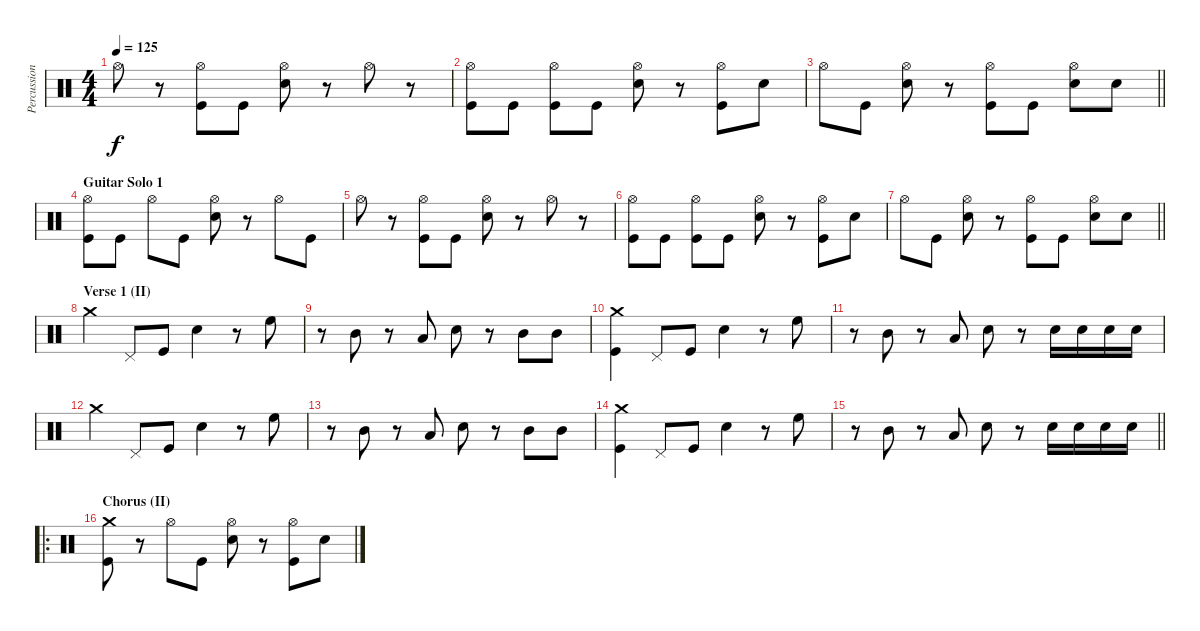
\track ("Percussion" "Percussion") {instrument percussion}
\staff {score}
\articulation defaults
\ts (4 4)
\tempo 125
\clef neutral
\ks c "Hi-Hat (open)".8{dy f}
r.8 ("Hi-Hat (open)" "Kick (hit)").8 "Kick (hit)".8 ("Hi-Hat (open)" "Snare (hit) 2").8 r.8 "Hi-Hat (open)".8 r.8 |
("Hi-Hat (open)" "Kick (hit)").8 "Kick (hit)".8 ("Hi-Hat (open)" "Kick (hit)").8 "Kick (hit)".8 ("Hi-Hat (open)" "Snare (hit) 2").8 r.8 ("Hi-Hat (open)" "Kick (hit)").8 "Snare (hit) 2".8 |
\barLineRight lightlight "Hi-Hat (open)".8 "Kick (hit)".8
("Hi-Hat (open)" "Snare (hit) 2").8 r.8 ("Hi-Hat (open)" "Kick (hit)").8 "Kick (hit)".8 ("Hi-Hat (open)" "Snare (hit) 2").8 "Snare (hit) 2".8 |
\section ("" "Guitar Solo 1")
("Hi-Hat (open)" "Kick (hit)").8 "Kick (hit)".8 "Hi-Hat (open)".8 "Kick (hit)".8 ("Hi-Hat (open)" "Snare (hit) 2").8 r.8 "Hi-Hat (open)".8 "Kick (hit)".8 |
"Hi-Hat (open)".8 r.8 ("Hi-Hat (open)" "Kick (hit)").8 "Kick (hit)".8 ("Hi-Hat (open)" "Snare (hit) 2").8 r.8 "Hi-Hat (open)".8 r.8 |
("Hi-Hat (open)" "Kick (hit)").8 "Kick (hit)".8 ("Hi-Hat (open)" "Kick (hit)").8 "Kick (hit)".8 ("Hi-Hat (open)" "Snare (hit) 2").8 r.8 ("Hi-Hat (open)" "Kick (hit)").8 "Snare (hit) 2".8 |
\barLineRight lightlight "Hi-Hat (open)".8 "Kick (hit)".8
("Hi-Hat (open)" "Snare (hit) 2").8 r.8 ("Hi-Hat (open)" "Kick (hit)").8 "Kick (hit)".8 ("Hi-Hat (open)" "Snare (hit) 2").8 "Snare (hit) 2".8 |
\section ("" "Verse 1 (II)")
"Crash medium (hit)".4 "Pedal Hi-Hat (hit)".8 "Kick (hit)".8 "Snare (hit) 2".4 r.8 "High Floor Tom (hit)".8 |
r.8 "Mid Tom (hit)".8 r.8 "Low Tom (hit)".8 "Snare (hit) 2".8 r.8 "Mid Tom (hit)".8 "Mid Tom (hit)".8 |
("Crash medium (hit)" "Kick (hit)").4 "Pedal Hi-Hat (hit)".8 "Kick (hit)".8 "Snare (hit) 2".4 r.8 "High Floor Tom (hit)".8 |
r.8 "Mid Tom (hit)".8 r.8 "Low Tom (hit)".8 "Snare (hit) 2".8 r.8 "Snare (hit) 2".16 "Snare (hit) 2".16 "Snare (hit) 2".16 "Snare (hit) 2".16 |
"Crash medium (hit)".4 "Pedal Hi-Hat (hit)".8 "Kick (hit)".8 "Snare (hit) 2".4 r.8 "High Floor Tom (hit)".8 |
r.8 "Mid Tom (hit)".8 r.8 "Low Tom (hit)".8 "Snare (hit) 2".8 r.8 "Mid Tom (hit)".8 "Mid Tom (hit)".8 |
("Crash medium (hit)" "Kick (hit)").4 "Pedal Hi-Hat (hit)".8 "Kick (hit)".8 "Snare (hit) 2".4 r.8 "High Floor Tom (hit)".8 |
\barLineRight lightlight
r.8 "Mid Tom (hit)".8 r.8 "Low Tom (hit)".8 "Snare (hit) 2".8 r.8 "Snare (hit) 2".16 "Snare (hit) 2".16 "Snare (hit) 2".16 "Snare (hit) 2".16 |
\ro
\section ("" "Chorus (II)")
("Crash medium (hit)" "Kick (hit)").8 r.8 "Hi-Hat (open)".8 "Kick (hit)".8 ("Hi-Hat (open)" "Snare (hit) 2").8 r.8 ("Hi-Hat (open)" "Kick (hit)").8 "Snare (hit) 2".8
